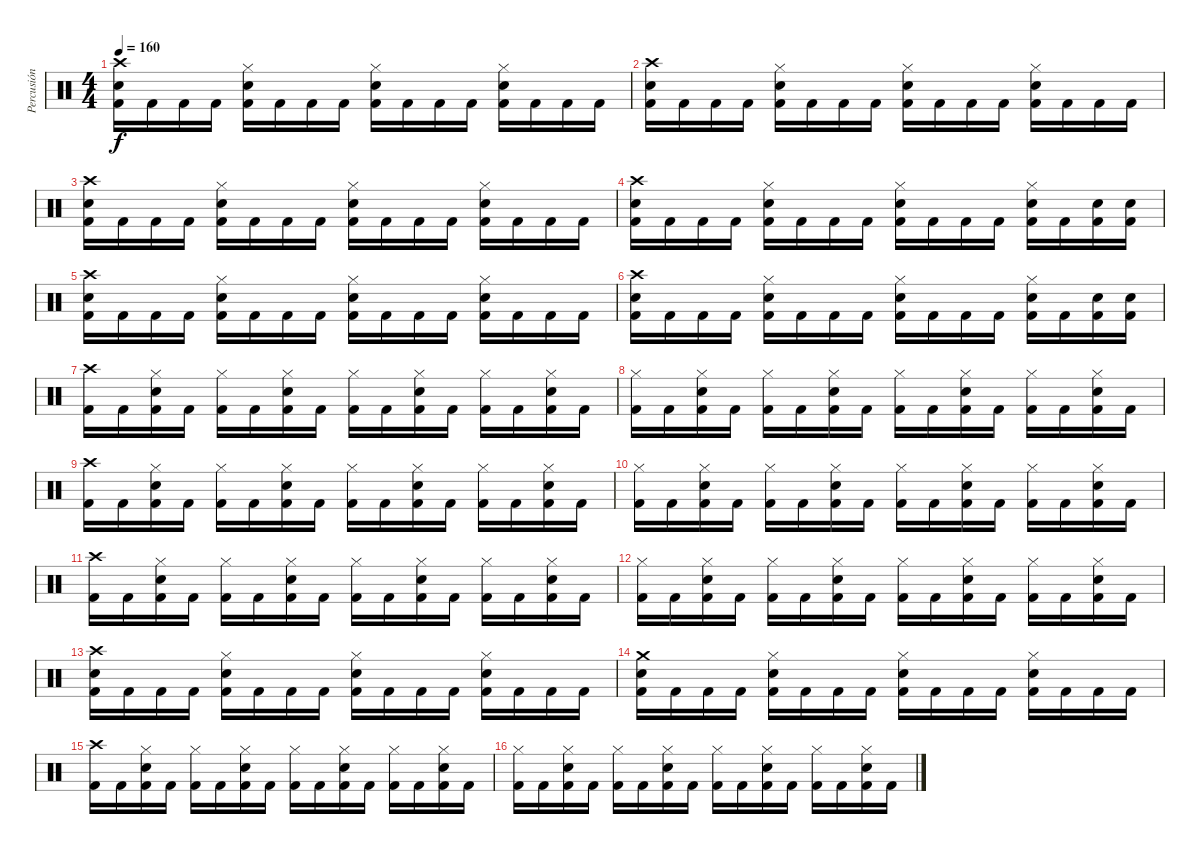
\track ("Percusión" "Percusión") {instrument percussion}
\staff {score}
\articulation defaults
\ts (4 4)
\tempo 160
\clef neutral
\ks c
("Crash high (hit)" "Electric Snare (hit)" "Kick (hit) 2").16{dy f} "Kick (hit) 2".16 "Kick (hit) 2".16 "Kick (hit) 2".16 ("Hi-Hat (closed)" "Electric Snare (hit)" "Kick (hit) 2").16 "Kick (hit) 2".16 "Kick (hit) 2".16 "Kick (hit) 2".16 ("Hi-Hat (closed)" "Electric Snare (hit)" "Kick (hit) 2").16 "Kick (hit) 2".16 "Kick (hit) 2".16 "Kick (hit) 2".16 ("Hi-Hat (closed)" "Electric Snare (hit)" "Kick (hit) 2").16 "Kick (hit) 2".16 "Kick (hit) 2".16 "Kick (hit) 2".16 |
("Crash high (hit)" "Electric Snare (hit)" "Kick (hit) 2").16 "Kick (hit) 2".16 "Kick (hit) 2".16 "Kick (hit) 2".16 ("Hi-Hat (closed)" "Electric Snare (hit)" "Kick (hit) 2").16 "Kick (hit) 2".16 "Kick (hit) 2".16 "Kick (hit) 2".16 ("Hi-Hat (closed)" "Electric Snare (hit)" "Kick (hit) 2").16 "Kick (hit) 2".16 "Kick (hit) 2".16 "Kick (hit) 2".16 ("Hi-Hat (closed)" "Electric Snare (hit)" "Kick (hit) 2").16 "Kick (hit) 2".16 "Kick (hit) 2".16 "Kick (hit) 2".16 |
("Crash high (hit)" "Electric Snare (hit)" "Kick (hit) 2").16 "Kick (hit) 2".16 "Kick (hit) 2".16 "Kick (hit) 2".16 ("Hi-Hat (closed)" "Electric Snare (hit)" "Kick (hit) 2").16 "Kick (hit) 2".16 "Kick (hit) 2".16 "Kick (hit) 2".16 ("Hi-Hat (closed)" "Electric Snare (hit)" "Kick (hit) 2").16 "Kick (hit) 2".16 "Kick (hit) 2".16 "Kick (hit) 2".16 ("Hi-Hat (closed)" "Electric Snare (hit)" "Kick (hit) 2").16 "Kick (hit) 2".16 "Kick (hit) 2".16 "Kick (hit) 2".16 |
("Crash high (hit)" "Electric Snare (hit)" "Kick (hit) 2").16 "Kick (hit) 2".16 "Kick (hit) 2".16 "Kick (hit) 2".16 ("Hi-Hat (closed)" "Electric Snare (hit)" "Kick (hit) 2").16 "Kick (hit) 2".16 "Kick (hit) 2".16 "Kick (hit) 2".16 ("Hi-Hat (closed)" "Electric Snare (hit)" "Kick (hit) 2").16 "Kick (hit) 2".16 "Kick (hit) 2".16 "Kick (hit) 2".16 ("Hi-Hat (closed)" "Electric Snare (hit)" "Kick (hit) 2").16 "Kick (hit) 2".16 ("Electric Snare (hit)" "Kick (hit) 2").16 ("Electric Snare (hit)" "Kick (hit) 2").16 |
("Crash high (hit)" "Electric Snare (hit)" "Kick (hit) 2").16 "Kick (hit) 2".16 "Kick (hit) 2".16 "Kick (hit) 2".16 ("Hi-Hat (closed)" "Electric Snare (hit)" "Kick (hit) 2").16 "Kick (hit) 2".16 "Kick (hit) 2".16 "Kick (hit) 2".16 ("Hi-Hat (closed)" "Electric Snare (hit)" "Kick (hit) 2").16 "Kick (hit) 2".16 "Kick (hit) 2".16 "Kick (hit) 2".16 ("Hi-Hat (closed)" "Electric Snare (hit)" "Kick (hit) 2").16 "Kick (hit) 2".16 "Kick (hit) 2".16 "Kick (hit) 2".16 |
("Crash high (hit)" "Electric Snare (hit)" "Kick (hit) 2").16 "Kick (hit) 2".16 "Kick (hit) 2".16 "Kick (hit) 2".16 ("Hi-Hat (closed)" "Electric Snare (hit)" "Kick (hit) 2").16 "Kick (hit) 2".16 "Kick (hit) 2".16 "Kick (hit) 2".16 ("Hi-Hat (closed)" "Electric Snare (hit)" "Kick (hit) 2").16 "Kick (hit) 2".16 "Kick (hit) 2".16 "Kick (hit) 2".16 ("Hi-Hat (closed)" "Electric Snare (hit)" "Kick (hit) 2").16 "Kick (hit) 2".16 ("Electric Snare (hit)" "Kick (hit) 2").16 ("Electric Snare (hit)" "Kick (hit) 2").16 |
("Crash high (hit)" "Kick (hit) 2").16 "Kick (hit) 2".16 ("Hi-Hat (closed)" "Electric Snare (hit)" "Kick (hit) 2").16 "Kick (hit) 2".16 ("Hi-Hat (closed)" "Kick (hit) 2").16 "Kick (hit) 2".16 ("Hi-Hat (closed)" "Electric Snare (hit)" "Kick (hit) 2").16 "Kick (hit) 2".16 ("Hi-Hat (closed)" "Kick (hit) 2").16 "Kick (hit) 2".16 ("Hi-Hat (closed)" "Electric Snare (hit)" "Kick (hit) 2").16 "Kick (hit) 2".16 ("Hi-Hat (closed)" "Kick (hit) 2").16 "Kick (hit) 2".16 ("Hi-Hat (closed)" "Electric Snare (hit)" "Kick (hit) 2").16 "Kick (hit) 2".16 |
("Hi-Hat (closed)" "Kick (hit) 2").16 "Kick (hit) 2".16 ("Hi-Hat (closed)" "Electric Snare (hit)" "Kick (hit) 2").16 "Kick (hit) 2".16 ("Hi-Hat (closed)" "Kick (hit) 2").16 "Kick (hit) 2".16 ("Hi-Hat (closed)" "Electric Snare (hit)" "Kick (hit) 2").16 "Kick (hit) 2".16 ("Hi-Hat (closed)" "Kick (hit) 2").16 "Kick (hit) 2".16 ("Hi-Hat (closed)" "Electric Snare (hit)" "Kick (hit) 2").16 "Kick (hit) 2".16 ("Hi-Hat (closed)" "Kick (hit) 2").16 "Kick (hit) 2".16 ("Hi-Hat (closed)" "Electric Snare (hit)" "Kick (hit) 2").16 "Kick (hit) 2".16 |
("Crash high (hit)" "Kick (hit) 2").16 "Kick (hit) 2".16 ("Hi-Hat (closed)" "Electric Snare (hit)" "Kick (hit) 2").16 "Kick (hit) 2".16 ("Hi-Hat (closed)" "Kick (hit) 2").16 "Kick (hit) 2".16 ("Hi-Hat (closed)" "Electric Snare (hit)" "Kick (hit) 2").16 "Kick (hit) 2".16 ("Hi-Hat (closed)" "Kick (hit) 2").16 "Kick (hit) 2".16 ("Hi-Hat (closed)" "Electric Snare (hit)" "Kick (hit) 2").16 "Kick (hit) 2".16 ("Hi-Hat (closed)" "Kick (hit) 2").16 "Kick (hit) 2".16 ("Hi-Hat (closed)" "Electric Snare (hit)" "Kick (hit) 2").16 "Kick (hit) 2".16 |
("Hi-Hat (closed)" "Kick (hit) 2").16 "Kick (hit) 2".16 ("Hi-Hat (closed)" "Electric Snare (hit)" "Kick (hit) 2").16 "Kick (hit) 2".16 ("Hi-Hat (closed)" "Kick (hit) 2").16 "Kick (hit) 2".16 ("Hi-Hat (closed)" "Electric Snare (hit)" "Kick (hit) 2").16 "Kick (hit) 2".16 ("Hi-Hat (closed)" "Kick (hit) 2").16 "Kick (hit) 2".16 ("Hi-Hat (closed)" "Electric Snare (hit)" "Kick (hit) 2").16 "Kick (hit) 2".16 ("Hi-Hat (closed)" "Kick (hit) 2").16 "Kick (hit) 2".16 ("Hi-Hat (closed)" "Electric Snare (hit)" "Kick (hit) 2").16 "Kick (hit) 2".16 |
("Crash high (hit)" "Kick (hit) 2").16 "Kick (hit) 2".16 ("Hi-Hat (closed)" "Electric Snare (hit)" "Kick (hit) 2").16 "Kick (hit) 2".16 ("Hi-Hat (closed)" "Kick (hit) 2").16 "Kick (hit) 2".16 ("Hi-Hat (closed)" "Electric Snare (hit)" "Kick (hit) 2").16 "Kick (hit) 2".16 ("Hi-Hat (closed)" "Kick (hit) 2").16 "Kick (hit) 2".16 ("Hi-Hat (closed)" "Electric Snare (hit)" "Kick (hit) 2").16 "Kick (hit) 2".16 ("Hi-Hat (closed)" "Kick (hit) 2").16 "Kick (hit) 2".16 ("Hi-Hat (closed)" "Electric Snare (hit)" "Kick (hit) 2").16 "Kick (hit) 2".16 |
("Hi-Hat (closed)" "Kick (hit) 2").16 "Kick (hit) 2".16 ("Hi-Hat (closed)" "Electric Snare (hit)" "Kick (hit) 2").16 "Kick (hit) 2".16 ("Hi-Hat (closed)" "Kick (hit) 2").16 "Kick (hit) 2".16 ("Hi-Hat (closed)" "Electric Snare (hit)" "Kick (hit) 2").16 "Kick (hit) 2".16 ("Hi-Hat (closed)" "Kick (hit) 2").16 "Kick (hit) 2".16 ("Hi-Hat (closed)" "Electric Snare (hit)" "Kick (hit) 2").16 "Kick (hit) 2".16 ("Hi-Hat (closed)" "Kick (hit) 2").16 "Kick (hit) 2".16 ("Hi-Hat (closed)" "Electric Snare (hit)" "Kick (hit) 2").16 "Kick (hit) 2".16 |
("Crash high (hit)" "Electric Snare (hit)" "Kick (hit) 2").16 "Kick (hit) 2".16 "Kick (hit) 2".16 "Kick (hit) 2".16 ("Hi-Hat (closed)" "Electric Snare (hit)" "Kick (hit) 2").16 "Kick (hit) 2".16 "Kick (hit) 2".16 "Kick (hit) 2".16 ("Hi-Hat (closed)" "Electric Snare (hit)" "Kick (hit) 2").16 "Kick (hit) 2".16 "Kick (hit) 2".16 "Kick (hit) 2".16 ("Hi-Hat (closed)" "Electric Snare (hit)" "Kick (hit) 2").16 "Kick (hit) 2".16 "Kick (hit) 2".16 "Kick (hit) 2".16 |
("Crash medium (hit)" "Electric Snare (hit)" "Kick (hit) 2").16 "Kick (hit) 2".16 "Kick (hit) 2".16 "Kick (hit) 2".16 ("Hi-Hat (closed)" "Electric Snare (hit)" "Kick (hit) 2").16 "Kick (hit) 2".16 "Kick (hit) 2".16 "Kick (hit) 2".16 ("Hi-Hat (closed)" "Electric Snare (hit)" "Kick (hit) 2").16 "Kick (hit) 2".16 "Kick (hit) 2".16 "Kick (hit) 2".16 ("Hi-Hat (closed)" "Electric Snare (hit)" "Kick (hit) 2").16 "Kick (hit) 2".16 "Kick (hit) 2".16 "Kick (hit) 2".16 |
("Crash high (hit)" "Kick (hit) 2").16 "Kick (hit) 2".16 ("Hi-Hat (closed)" "Electric Snare (hit)" "Kick (hit) 2").16 "Kick (hit) 2".16 ("Hi-Hat (closed)" "Kick (hit) 2").16 "Kick (hit) 2".16 ("Hi-Hat (closed)" "Electric Snare (hit)" "Kick (hit) 2").16 "Kick (hit) 2".16 ("Hi-Hat (closed)" "Kick (hit) 2").16 "Kick (hit) 2".16 ("Hi-Hat (closed)" "Electric Snare (hit)" "Kick (hit) 2").16 "Kick (hit) 2".16 ("Hi-Hat (closed)" "Kick (hit) 2").16 "Kick (hit) 2".16 ("Hi-Hat (closed)" "Electric Snare (hit)" "Kick (hit) 2").16 "Kick (hit) 2".16 |
("Hi-Hat (closed)" "Kick (hit) 2").16 "Kick (hit) 2".16 ("Hi-Hat (closed)" "Electric Snare (hit)" "Kick (hit) 2").16 "Kick (hit) 2".16 ("Hi-Hat (closed)" "Kick (hit) 2").16 "Kick (hit) 2".16 ("Hi-Hat (closed)" "Electric Snare (hit)" "Kick (hit) 2").16 "Kick (hit) 2".16 ("Hi-Hat (closed)" "Kick (hit) 2").16 "Kick (hit) 2".16 ("Hi-Hat (closed)" "Electric Snare (hit)" "Kick (hit) 2").16 "Kick (hit) 2".16 ("Hi-Hat (closed)" "Kick (hit) 2").16 "Kick (hit) 2".16 ("Hi-Hat (closed)" "Electric Snare (hit)" "Kick (hit) 2").16 "Kick (hit) 2".16
